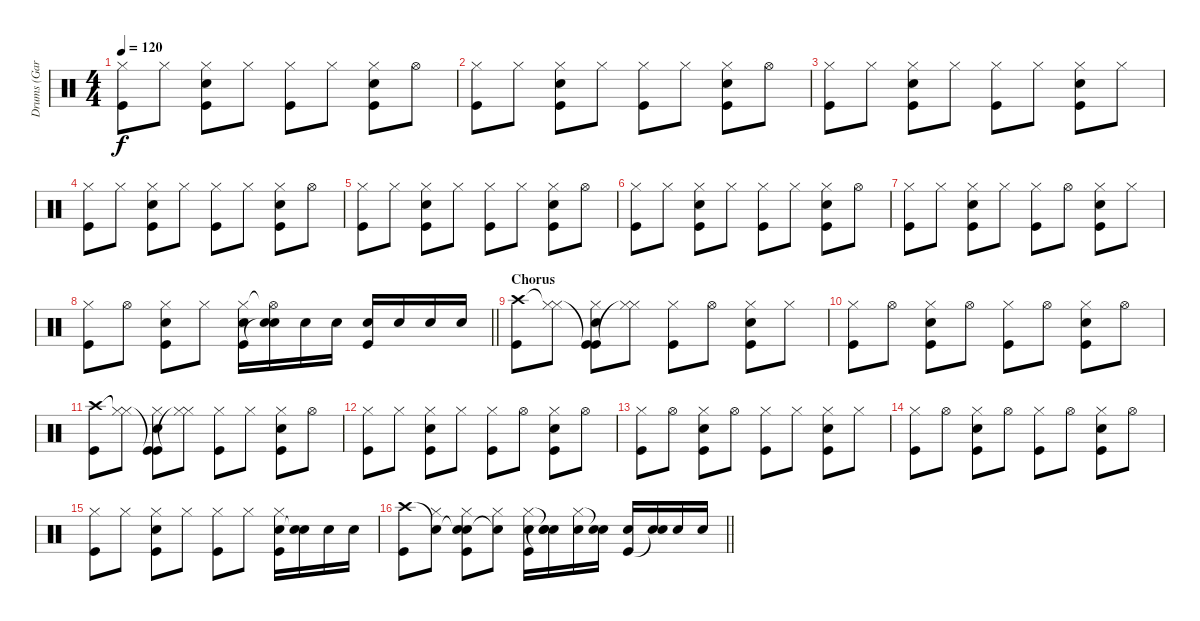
\track ("Drums (Gary Mallaber)" "Drums (Gar") {instrument percussion}
\staff {score}
\articulation defaults
\ts (4 4)
\tempo 120
\clef neutral
\ks c
("Hi-Hat (closed)" "Kick (hit)").8{dy f} "Hi-Hat (closed)".8 ("Hi-Hat (closed)" "Snare (hit) 2" "Kick (hit)").8 "Hi-Hat (closed)".8 ("Hi-Hat (closed)" "Kick (hit)").8 "Hi-Hat (closed)".8 ("Hi-Hat (closed)" "Snare (hit) 2" "Kick (hit)").8 "Hi-Hat (open)".8 |
("Hi-Hat (closed)" "Kick (hit)").8 "Hi-Hat (closed)".8 ("Hi-Hat (closed)" "Snare (hit) 2" "Kick (hit)").8 "Hi-Hat (closed)".8 ("Hi-Hat (closed)" "Kick (hit)").8 "Hi-Hat (closed)".8 ("Hi-Hat (closed)" "Snare (hit) 2" "Kick (hit)").8 "Hi-Hat (open)".8 |
("Hi-Hat (closed)" "Kick (hit)").8 "Hi-Hat (closed)".8 ("Hi-Hat (closed)" "Snare (hit) 2" "Kick (hit)").8 "Hi-Hat (closed)".8 ("Hi-Hat (closed)" "Kick (hit)").8 "Hi-Hat (closed)".8 ("Hi-Hat (closed)" "Snare (hit) 2" "Kick (hit)").8 "Hi-Hat (closed)".8 |
("Hi-Hat (closed)" "Kick (hit)").8 "Hi-Hat (closed)".8 ("Hi-Hat (closed)" "Snare (hit) 2" "Kick (hit)").8 "Hi-Hat (closed)".8 ("Hi-Hat (closed)" "Kick (hit)").8 "Hi-Hat (closed)".8 ("Hi-Hat (closed)" "Snare (hit) 2" "Kick (hit)").8 "Hi-Hat (open)".8 |
("Hi-Hat (closed)" "Kick (hit)").8 "Hi-Hat (closed)".8 ("Hi-Hat (closed)" "Snare (hit) 2" "Kick (hit)").8 "Hi-Hat (closed)".8 ("Hi-Hat (closed)" "Kick (hit)").8 "Hi-Hat (closed)".8 ("Hi-Hat (closed)" "Snare (hit) 2" "Kick (hit)").8 "Hi-Hat (open)".8 |
("Hi-Hat (closed)" "Kick (hit)").8 "Hi-Hat (closed)".8 ("Hi-Hat (closed)" "Snare (hit) 2" "Kick (hit)").8 "Hi-Hat (closed)".8 ("Hi-Hat (closed)" "Kick (hit)").8 "Hi-Hat (closed)".8 ("Hi-Hat (closed)" "Snare (hit) 2" "Kick (hit)").8 "Hi-Hat (open)".8 |
("Hi-Hat (closed)" "Kick (hit)").8 "Hi-Hat (closed)".8 ("Hi-Hat (closed)" "Snare (hit) 2" "Kick (hit)").8 "Hi-Hat (closed)".8 ("Hi-Hat (closed)" "Kick (hit)").8 "Hi-Hat (open)".8 ("Hi-Hat (closed)" "Snare (hit) 2" "Kick (hit)").8 "Hi-Hat (closed)".8 |
\barLineRight lightlight
("Hi-Hat (closed)" "Kick (hit)").8 "Hi-Hat (open)".8 ("Hi-Hat (closed)" "Snare (hit) 2" "Kick (hit)").8 "Hi-Hat (closed)".8 ("Hi-Hat (closed)" "Snare (hit) 2" "Kick (hit)").16 ("Hi-Hat (open)"{t} "Snare (hit) 2" "Snare (hit)"{t}).16 "Snare (hit) 2".16 "Snare (hit) 2".16 ("Snare (hit) 2" "Kick (hit)").16 "Snare (hit) 2".16 "Snare (hit) 2".16 "Snare (hit) 2".16 |
\section ("" "Chorus")
("Crash high (hit)" "Kick (hit)").8 ("Hi-Hat (closed)"{t} "Hi-Hat (closed)").8 ("Kick (hit)"{t} "Hi-Hat (closed)" "Snare (hit) 2" "Kick (hit)").8 ("Hi-Hat (closed)"{t} "Hi-Hat (closed)").8 ("Hi-Hat (closed)" "Kick (hit)").8 "Hi-Hat (open)".8 ("Hi-Hat (closed)" "Snare (hit) 2" "Kick (hit)").8 "Hi-Hat (closed)".8 |
("Hi-Hat (closed)" "Kick (hit)").8 "Hi-Hat (open)".8 ("Hi-Hat (closed)" "Snare (hit) 2" "Kick (hit)").8 "Hi-Hat (open)".8 ("Hi-Hat (closed)" "Kick (hit)").8 "Hi-Hat (open)".8 ("Hi-Hat (closed)" "Snare (hit) 2" "Kick (hit)").8 "Hi-Hat (open)".8 |
("Crash high (hit)" "Kick (hit)").8 ("Hi-Hat (closed)"{t} "Hi-Hat (closed)").8 ("Kick (hit)"{t} "Hi-Hat (closed)" "Snare (hit) 2" "Kick (hit)").8 ("Hi-Hat (closed)"{t} "Hi-Hat (closed)").8 ("Hi-Hat (closed)" "Kick (hit)").8 "Hi-Hat (closed)".8 ("Hi-Hat (closed)" "Snare (hit) 2" "Kick (hit)").8 "Hi-Hat (open)".8 |
("Hi-Hat (closed)" "Kick (hit)").8 "Hi-Hat (closed)".8 ("Hi-Hat (closed)" "Snare (hit) 2" "Kick (hit)").8 "Hi-Hat (closed)".8 ("Hi-Hat (closed)" "Kick (hit)").8 "Hi-Hat (open)".8 ("Hi-Hat (closed)" "Snare (hit) 2" "Kick (hit)").8 "Hi-Hat (open)".8 |
("Hi-Hat (closed)" "Kick (hit)").8 "Hi-Hat (open)".8 ("Hi-Hat (closed)" "Snare (hit) 2" "Kick (hit)").8 "Hi-Hat (open)".8 ("Hi-Hat (closed)" "Kick (hit)").8 "Hi-Hat (closed)".8 ("Hi-Hat (closed)" "Snare (hit) 2" "Kick (hit)").8 "Hi-Hat (closed)".8 |
("Hi-Hat (closed)" "Kick (hit)").8 "Hi-Hat (open)".8 ("Hi-Hat (closed)" "Snare (hit) 2" "Kick (hit)").8 "Hi-Hat (open)".8 ("Hi-Hat (closed)" "Kick (hit)").8 "Hi-Hat (open)".8 ("Hi-Hat (closed)" "Snare (hit) 2" "Kick (hit)").8 "Hi-Hat (open)".8 |
("Hi-Hat (closed)" "Kick (hit)").8 "Hi-Hat (closed)".8 ("Hi-Hat (closed)" "Snare (hit) 2" "Kick (hit)").8 "Hi-Hat (closed)".8 ("Hi-Hat (closed)" "Kick (hit)").8 "Hi-Hat (closed)".8 ("Hi-Hat (closed)" "Snare (hit) 2" "Kick (hit)").16 ("Snare (hit) 2" "Snare (hit)"{t}).16 "Snare (hit) 2".16 "Snare (hit) 2".16 |
\barLineRight lightlight
("Crash high (hit)" "Kick (hit)").8 ("Snare (hit)"{t} "Hi-Hat (closed)").8 ("Snare (hit)"{t} "Hi-Hat (closed)" "Snare (hit) 2" "Kick (hit)").8 ("Snare (hit)"{t} "Hi-Hat (closed)").8 ("Hi-Hat (closed)" "Snare (hit) 2" "Kick (hit)").16 ("Snare (hit)"{t} "Snare (hit) 2" "Snare (hit)"{t}).16 ("Hi-Hat (closed)" "Snare (hit) 2").16 ("Snare (hit)"{t} "Snare (hit) 2").16 ("Snare (hit) 2" "Kick (hit)").16 ("Snare (hit) 2" "Snare (hit)"{t}).16 "Snare (hit) 2".16 "Snare (hit) 2".16
